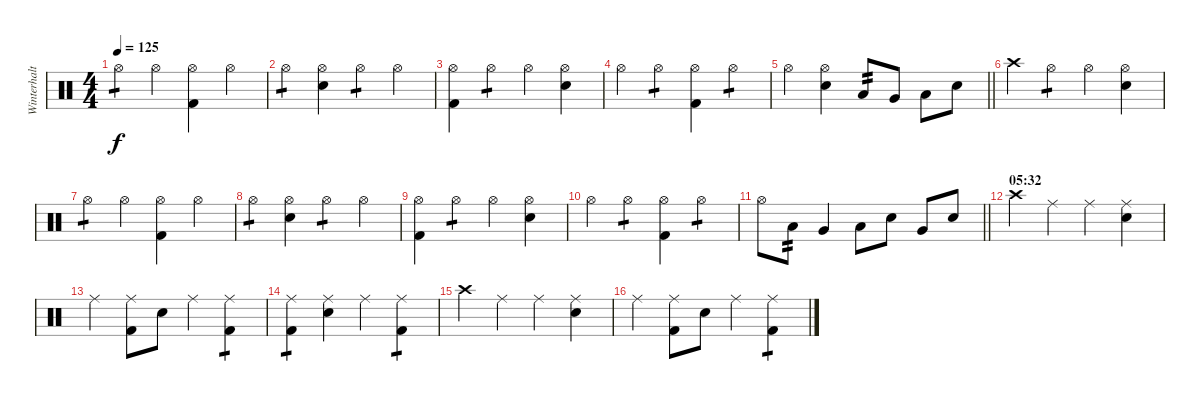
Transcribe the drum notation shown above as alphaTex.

\track ("Winterhalten" "Winterhalt") {instrument percussion}
\staff {score}
\articulation defaults
\ts (4 4)
\tempo 125
\clef neutral
\ks c "Hi-Hat (open)".4{tp 1 dy f} "Hi-Hat (open)".4
("Hi-Hat (open)" "Kick (hit) 2").4 "Hi-Hat (open)".4 |
"Hi-Hat (open)".4{tp 1} ("Hi-Hat (open)" "Snare (hit) 2").4 "Hi-Hat (open)".4{tp 1} "Hi-Hat (open)".4 |
("Hi-Hat (open)" "Kick (hit) 2").4 "Hi-Hat (open)".4{tp 1} "Hi-Hat (open)".4 ("Hi-Hat (open)" "Snare (hit) 2").4 |
"Hi-Hat (open)".4 "Hi-Hat (open)".4{tp 1} ("Hi-Hat (open)" "Kick (hit) 2").4 "Hi-Hat (open)".4{tp 1} |
\barLineRight lightlight "Hi-Hat (open)".4
("Hi-Hat (open)" "Snare (hit) 2").4 "Low Tom (hit)".8{tp 2} "Very Low Tom (hit)".8 "Low Floor Tom (hit)".8 "Snare (hit) 2".8 |
"Crash high (hit)".4 "Hi-Hat (open)".4{tp 1} "Hi-Hat (open)".4 ("Hi-Hat (open)" "Snare (hit) 2").4 |
"Hi-Hat (open)".4{tp 1} "Hi-Hat (open)".4 ("Hi-Hat (open)" "Kick (hit) 2").4 "Hi-Hat (open)".4 |
"Hi-Hat (open)".4{tp 1} ("Hi-Hat (open)" "Snare (hit) 2").4 "Hi-Hat (open)".4{tp 1} "Hi-Hat (open)".4 |
("Hi-Hat (open)" "Kick (hit) 2").4 "Hi-Hat (open)".4{tp 1} "Hi-Hat (open)".4 ("Hi-Hat (open)" "Snare (hit) 2").4 |
"Hi-Hat (open)".4 "Hi-Hat (open)".4{tp 1} ("Hi-Hat (open)" "Kick (hit) 2").4 "Hi-Hat (open)".4{tp 1} |
\barLineRight lightlight "Hi-Hat (open)".8 "Low Tom (hit)".8{tp 2} "Very Low Tom (hit)".4 "Low Tom (hit)".8 "Snare (hit) 2".8 "Very Low Tom (hit)".8 "Snare (hit) 2".8
|
\section ("" "05:32")
"Crash high (hit)".4 "Ride (middle)".4 "Ride (middle)".4 ("Ride (middle)" "Snare (hit) 2").4 |
"Ride (middle)".4 ("Ride (middle)" "Kick (hit) 2").8 "Snare (hit) 2".8 "Ride (middle)".4 ("Ride (middle)" "Kick (hit) 2").4{tp 1} |
("Ride (middle)" "Kick (hit) 2").4{tp 1} ("Ride (middle)" "Snare (hit) 2").4 "Ride (middle)".4 ("Ride (middle)" "Kick (hit) 2").4{tp 1} |
"Crash high (hit)".4 "Ride (middle)".4 "Ride (middle)".4 ("Ride (middle)" "Snare (hit) 2").4 |
"Ride (middle)".4 ("Ride (middle)" "Kick (hit) 2").8 "Snare (hit) 2".8 "Ride (middle)".4 ("Ride (middle)" "Kick (hit) 2").4{tp 1}
